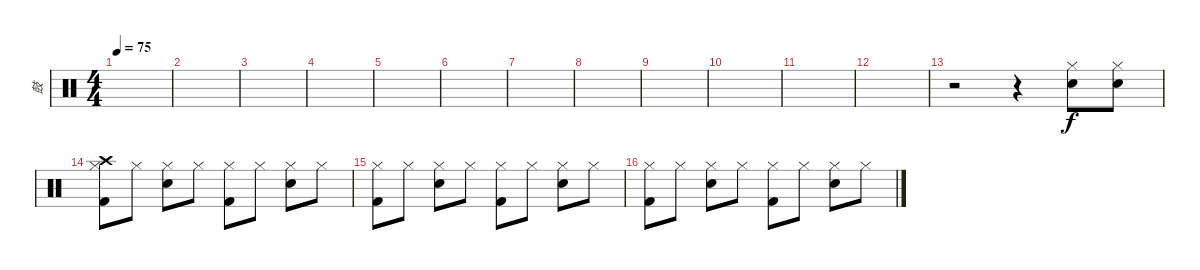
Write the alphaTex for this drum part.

\track ("鼓" "鼓") {instrument percussion}
\staff {score}
\articulation defaults
\ts (4 4)
\tempo 75
\clef neutral
\ks c
|
|
|
|
|
|
|
|
|
|
|
|
r.2 r.4 ("Hi-Hat (closed)" "Electric Snare (hit)").8 ("Hi-Hat (closed)" "Electric Snare (hit)").8 |
("Hi-Hat (closed)" "Crash high (hit)" "Kick (hit) 2").8 "Hi-Hat (closed)".8 ("Hi-Hat (closed)" "Electric Snare (hit)").8 "Hi-Hat (closed)".8 ("Hi-Hat (closed)" "Kick (hit) 2").8 "Hi-Hat (closed)".8 ("Hi-Hat (closed)" "Electric Snare (hit)").8 "Hi-Hat (closed)".8 |
("Hi-Hat (closed)" "Kick (hit) 2").8 "Hi-Hat (closed)".8 ("Hi-Hat (closed)" "Electric Snare (hit)").8 "Hi-Hat (closed)".8 ("Hi-Hat (closed)" "Kick (hit) 2").8 "Hi-Hat (closed)".8 ("Hi-Hat (closed)" "Electric Snare (hit)").8 "Hi-Hat (closed)".8 |
("Hi-Hat (closed)" "Kick (hit) 2").8 "Hi-Hat (closed)".8 ("Hi-Hat (closed)" "Electric Snare (hit)").8 "Hi-Hat (closed)".8 ("Hi-Hat (closed)" "Kick (hit) 2").8 "Hi-Hat (closed)".8 ("Hi-Hat (closed)" "Electric Snare (hit)").8 "Hi-Hat (closed)".8
